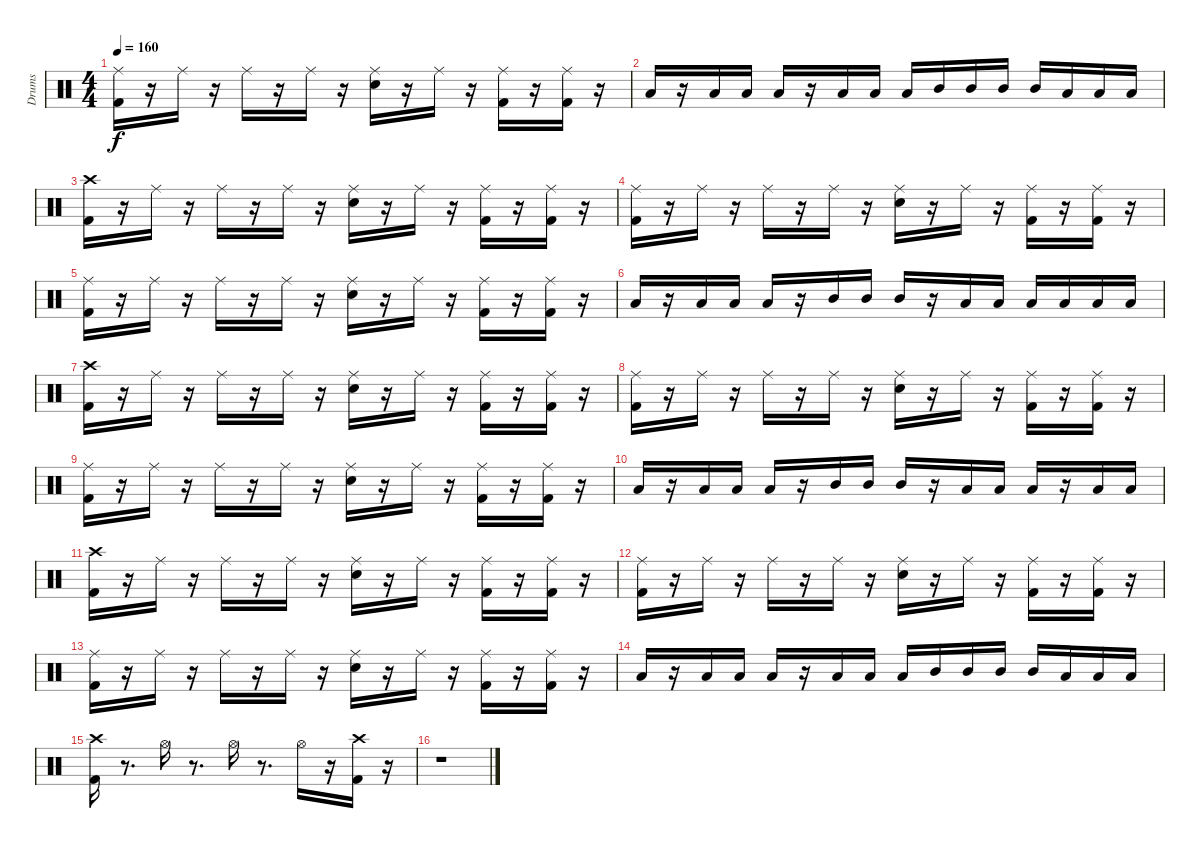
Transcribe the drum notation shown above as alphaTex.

\track ("Drums               " "Drums     ") {instrument percussion}
\staff {score}
\articulation defaults
\ts (4 4)
\tempo 160
\clef neutral
\ks c
("Kick (hit) 2" "Ride (middle)").16{dy f} r.16 "Ride (middle)".16 r.16 "Ride (middle)".16 r.16 "Ride (middle)".16 r.16 ("Snare (hit) 2" "Ride (middle)").16 r.16 "Ride (middle)".16 r.16 ("Kick (hit) 2" "Ride (middle)").16 r.16 ("Kick (hit) 2" "Ride (middle)").16 r.16 |
"Low Floor Tom (hit)".16 r.16 "Low Floor Tom (hit)".16 "Low Floor Tom (hit)".16 "Low Floor Tom (hit)".16 r.16 "Low Tom (hit)".16 "Low Tom (hit)".16 "Low Tom (hit)".16 "Mid Tom (hit)".16 "Mid Tom (hit)".16 "Mid Tom (hit)".16 "Mid Tom (hit)".16 "Low Tom (hit)".16 "Low Tom (hit)".16 "Low Tom (hit)".16 |
("Kick (hit) 2" "Crash high (hit)").16 r.16 "Ride (middle)".16 r.16 "Ride (middle)".16 r.16 "Ride (middle)".16 r.16 ("Snare (hit) 2" "Ride (middle)").16 r.16 "Ride (middle)".16 r.16 ("Kick (hit) 2" "Ride (middle)").16 r.16 ("Kick (hit) 2" "Ride (middle)").16 r.16 |
("Kick (hit) 2" "Ride (middle)").16 r.16 "Ride (middle)".16 r.16 "Ride (middle)".16 r.16 "Ride (middle)".16 r.16 ("Snare (hit) 2" "Ride (middle)").16 r.16 "Ride (middle)".16 r.16 ("Kick (hit) 2" "Ride (middle)").16 r.16 ("Kick (hit) 2" "Ride (middle)").16 r.16 |
("Kick (hit) 2" "Ride (middle)").16 r.16 "Ride (middle)".16 r.16 "Ride (middle)".16 r.16 "Ride (middle)".16 r.16 ("Snare (hit) 2" "Ride (middle)").16 r.16 "Ride (middle)".16 r.16 ("Kick (hit) 2" "Ride (middle)").16 r.16 ("Kick (hit) 2" "Ride (middle)").16 r.16 |
"Low Tom (hit)".16 r.16 "Low Tom (hit)".16 "Low Tom (hit)".16 "Low Tom (hit)".16 r.16 "Mid Tom (hit)".16 "Mid Tom (hit)".16 "Mid Tom (hit)".16 r.16 "Low Floor Tom (hit)".16 "Low Floor Tom (hit)".16 "Low Floor Tom (hit)".16 "Low Tom (hit)".16 "Low Tom (hit)".16 "Low Tom (hit)".16 |
("Kick (hit) 2" "Crash high (hit)").16 r.16 "Ride (middle)".16 r.16 "Ride (middle)".16 r.16 "Ride (middle)".16 r.16 ("Snare (hit) 2" "Ride (middle)").16 r.16 "Ride (middle)".16 r.16 ("Kick (hit) 2" "Ride (middle)").16 r.16 ("Kick (hit) 2" "Ride (middle)").16 r.16 |
("Kick (hit) 2" "Ride (middle)").16 r.16 "Ride (middle)".16 r.16 "Ride (middle)".16 r.16 "Ride (middle)".16 r.16 ("Snare (hit) 2" "Ride (middle)").16 r.16 "Ride (middle)".16 r.16 ("Kick (hit) 2" "Ride (middle)").16 r.16 ("Kick (hit) 2" "Ride (middle)").16 r.16 |
("Kick (hit) 2" "Ride (middle)").16 r.16 "Ride (middle)".16 r.16 "Ride (middle)".16 r.16 "Ride (middle)".16 r.16 ("Snare (hit) 2" "Ride (middle)").16 r.16 "Ride (middle)".16 r.16 ("Kick (hit) 2" "Ride (middle)").16 r.16 ("Kick (hit) 2" "Ride (middle)").16 r.16 |
"Low Floor Tom (hit)".16 r.16 "Low Floor Tom (hit)".16 "Low Floor Tom (hit)".16 "Low Floor Tom (hit)".16 r.16 "Mid Tom (hit)".16 "Mid Tom (hit)".16 "Mid Tom (hit)".16 r.16 "Low Tom (hit)".16 "Low Tom (hit)".16 "Low Tom (hit)".16 r.16 "Low Tom (hit)".16 "Low Tom (hit)".16 |
("Kick (hit) 2" "Crash high (hit)").16 r.16 "Ride (middle)".16 r.16 "Ride (middle)".16 r.16 "Ride (middle)".16 r.16 ("Snare (hit) 2" "Ride (middle)").16 r.16 "Ride (middle)".16 r.16 ("Kick (hit) 2" "Ride (middle)").16 r.16 ("Kick (hit) 2" "Ride (middle)").16 r.16 |
("Kick (hit) 2" "Ride (middle)").16 r.16 "Ride (middle)".16 r.16 "Ride (middle)".16 r.16 "Ride (middle)".16 r.16 ("Snare (hit) 2" "Ride (middle)").16 r.16 "Ride (middle)".16 r.16 ("Kick (hit) 2" "Ride (middle)").16 r.16 ("Kick (hit) 2" "Ride (middle)").16 r.16 |
("Kick (hit) 2" "Ride (middle)").16 r.16 "Ride (middle)".16 r.16 "Ride (middle)".16 r.16 "Ride (middle)".16 r.16 ("Snare (hit) 2" "Ride (middle)").16 r.16 "Ride (middle)".16 r.16 ("Kick (hit) 2" "Ride (middle)").16 r.16 ("Kick (hit) 2" "Ride (middle)").16 r.16 |
"Low Floor Tom (hit)".16 r.16 "Low Floor Tom (hit)".16 "Low Floor Tom (hit)".16 "Low Floor Tom (hit)".16 r.16 "Low Tom (hit)".16 "Low Tom (hit)".16 "Low Tom (hit)".16 "Mid Tom (hit)".16 "Mid Tom (hit)".16 "Mid Tom (hit)".16 "Mid Tom (hit)".16 "Low Tom (hit)".16 "Low Tom (hit)".16 "Low Tom (hit)".16 |
("Kick (hit) 2" "Crash high (hit)").16 r.8{d} "Hi-Hat (open)".16 r.8{d} "Hi-Hat (open)".16 r.8{d} "Hi-Hat (open)".16 r.16 ("Kick (hit) 2" "Crash high (hit)").16 r.16 |
r.1
